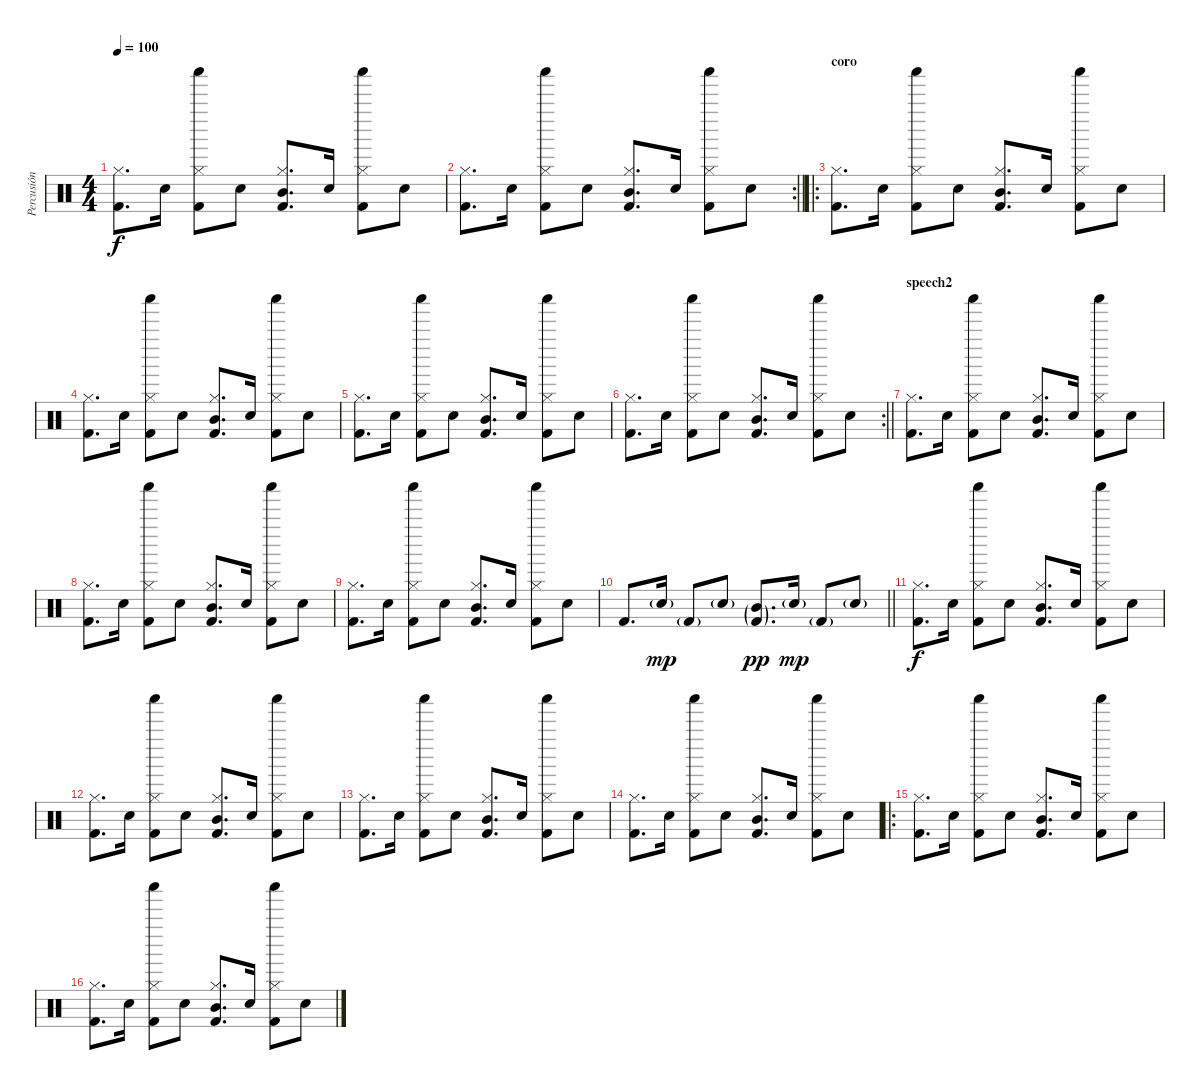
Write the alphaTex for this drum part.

\track ("Percusión" "Percusión") {instrument percussion}
\staff {score}
\articulation defaults
\ts (4 4)
\tempo 100
\clef neutral
\ks c
("Kick (hit) 2" "Hi-Hat (closed)").8{d dy f} "Electric Snare (hit)".16 ("Kick (hit) 2" "Hi-Hat (closed)" "Shaker (hit)").8 "Electric Snare (hit)".8 ("Kick (hit) 2" "Mid Tom (hit)" "Hi-Hat (closed)").8{d} "Electric Snare (hit)".16 ("Kick (hit) 2" "Hi-Hat (closed)" "Shaker (hit)").8 "Electric Snare (hit)".8 |
\rc 2
\barLineRight lightlight
("Kick (hit) 2" "Hi-Hat (closed)").8{d} "Electric Snare (hit)".16 ("Kick (hit) 2" "Hi-Hat (closed)" "Shaker (hit)").8 "Electric Snare (hit)".8 ("Kick (hit) 2" "Mid Tom (hit)" "Hi-Hat (closed)").8{d} "Electric Snare (hit)".16 ("Kick (hit) 2" "Hi-Hat (closed)" "Shaker (hit)").8 "Electric Snare (hit)".8 |
\ro
\section ("" "coro")
("Kick (hit) 2" "Hi-Hat (closed)").8{d} "Electric Snare (hit)".16 ("Kick (hit) 2" "Hi-Hat (closed)" "Shaker (hit)").8 "Electric Snare (hit)".8 ("Kick (hit) 2" "Mid Tom (hit)" "Hi-Hat (closed)").8{d} "Electric Snare (hit)".16 ("Kick (hit) 2" "Hi-Hat (closed)" "Shaker (hit)").8 "Electric Snare (hit)".8 |
("Kick (hit) 2" "Hi-Hat (closed)").8{d} "Electric Snare (hit)".16 ("Kick (hit) 2" "Hi-Hat (closed)" "Shaker (hit)").8 "Electric Snare (hit)".8 ("Kick (hit) 2" "Mid Tom (hit)" "Hi-Hat (closed)").8{d} "Electric Snare (hit)".16 ("Kick (hit) 2" "Hi-Hat (closed)" "Shaker (hit)").8 "Electric Snare (hit)".8 |
("Kick (hit) 2" "Hi-Hat (closed)").8{d} "Electric Snare (hit)".16 ("Kick (hit) 2" "Hi-Hat (closed)" "Shaker (hit)").8 "Electric Snare (hit)".8 ("Kick (hit) 2" "Mid Tom (hit)" "Hi-Hat (closed)").8{d} "Electric Snare (hit)".16 ("Kick (hit) 2" "Hi-Hat (closed)" "Shaker (hit)").8 "Electric Snare (hit)".8 |
\rc 2
\barLineRight lightlight
("Kick (hit) 2" "Hi-Hat (closed)").8{d} "Electric Snare (hit)".16 ("Kick (hit) 2" "Hi-Hat (closed)" "Shaker (hit)").8 "Electric Snare (hit)".8 ("Kick (hit) 2" "Mid Tom (hit)" "Hi-Hat (closed)").8{d} "Electric Snare (hit)".16 ("Kick (hit) 2" "Hi-Hat (closed)" "Shaker (hit)").8 "Electric Snare (hit)".8 |
\section ("" "speech2")
("Kick (hit) 2" "Hi-Hat (closed)").8{d} "Electric Snare (hit)".16 ("Kick (hit) 2" "Hi-Hat (closed)" "Shaker (hit)").8 "Electric Snare (hit)".8 ("Kick (hit) 2" "Mid Tom (hit)" "Hi-Hat (closed)").8{d} "Electric Snare (hit)".16 ("Kick (hit) 2" "Hi-Hat (closed)" "Shaker (hit)").8 "Electric Snare (hit)".8 |
("Kick (hit) 2" "Hi-Hat (closed)").8{d} "Electric Snare (hit)".16 ("Kick (hit) 2" "Hi-Hat (closed)" "Shaker (hit)").8 "Electric Snare (hit)".8 ("Kick (hit) 2" "Mid Tom (hit)" "Hi-Hat (closed)").8{d} "Electric Snare (hit)".16 ("Kick (hit) 2" "Hi-Hat (closed)" "Shaker (hit)").8 "Electric Snare (hit)".8 |
("Kick (hit) 2" "Hi-Hat (closed)").8{d} "Electric Snare (hit)".16 ("Kick (hit) 2" "Hi-Hat (closed)" "Shaker (hit)").8 "Electric Snare (hit)".8 ("Kick (hit) 2" "Mid Tom (hit)" "Hi-Hat (closed)").8{d} "Electric Snare (hit)".16 ("Kick (hit) 2" "Hi-Hat (closed)" "Shaker (hit)").8 "Electric Snare (hit)".8 |
\barLineRight lightlight "Kick (hit) 2".8{d} "Snare (hit) 2"{g}.16{dy mp} "Kick (hit) 2"{g}.8 "Snare (hit) 2"{g}.8
("Kick (hit) 2"{g} "Mid Tom (hit)"{g}).8{d dy pp} "Snare (hit) 2"{g}.16{dy mp} "Kick (hit) 2"{g}.8 "Snare (hit) 2"{g}.8 |
("Kick (hit) 2" "Hi-Hat (closed)").8{d dy f} "Electric Snare (hit)".16 ("Kick (hit) 2" "Hi-Hat (closed)" "Shaker (hit)").8 "Electric Snare (hit)".8 ("Kick (hit) 2" "Mid Tom (hit)" "Hi-Hat (closed)").8{d} "Electric Snare (hit)".16 ("Kick (hit) 2" "Hi-Hat (closed)" "Shaker (hit)").8 "Electric Snare (hit)".8 |
("Kick (hit) 2" "Hi-Hat (closed)").8{d} "Electric Snare (hit)".16 ("Kick (hit) 2" "Hi-Hat (closed)" "Shaker (hit)").8 "Electric Snare (hit)".8 ("Kick (hit) 2" "Mid Tom (hit)" "Hi-Hat (closed)").8{d} "Electric Snare (hit)".16 ("Kick (hit) 2" "Hi-Hat (closed)" "Shaker (hit)").8 "Electric Snare (hit)".8 |
("Kick (hit) 2" "Hi-Hat (closed)").8{d} "Electric Snare (hit)".16 ("Kick (hit) 2" "Hi-Hat (closed)" "Shaker (hit)").8 "Electric Snare (hit)".8 ("Kick (hit) 2" "Mid Tom (hit)" "Hi-Hat (closed)").8{d} "Electric Snare (hit)".16 ("Kick (hit) 2" "Hi-Hat (closed)" "Shaker (hit)").8 "Electric Snare (hit)".8 |
("Kick (hit) 2" "Hi-Hat (closed)").8{d} "Electric Snare (hit)".16 ("Kick (hit) 2" "Hi-Hat (closed)" "Shaker (hit)").8 "Electric Snare (hit)".8 ("Kick (hit) 2" "Mid Tom (hit)" "Hi-Hat (closed)").8{d} "Electric Snare (hit)".16 ("Kick (hit) 2" "Hi-Hat (closed)" "Shaker (hit)").8 "Electric Snare (hit)".8 |
\ro
("Kick (hit) 2" "Hi-Hat (closed)").8{d} "Electric Snare (hit)".16 ("Kick (hit) 2" "Hi-Hat (closed)" "Shaker (hit)").8 "Electric Snare (hit)".8 ("Kick (hit) 2" "Mid Tom (hit)" "Hi-Hat (closed)").8{d} "Electric Snare (hit)".16 ("Kick (hit) 2" "Hi-Hat (closed)" "Shaker (hit)").8 "Electric Snare (hit)".8 |
("Kick (hit) 2" "Hi-Hat (closed)").8{d} "Electric Snare (hit)".16 ("Kick (hit) 2" "Hi-Hat (closed)" "Shaker (hit)").8 "Electric Snare (hit)".8 ("Kick (hit) 2" "Mid Tom (hit)" "Hi-Hat (closed)").8{d} "Electric Snare (hit)".16 ("Kick (hit) 2" "Hi-Hat (closed)" "Shaker (hit)").8 "Electric Snare (hit)".8
